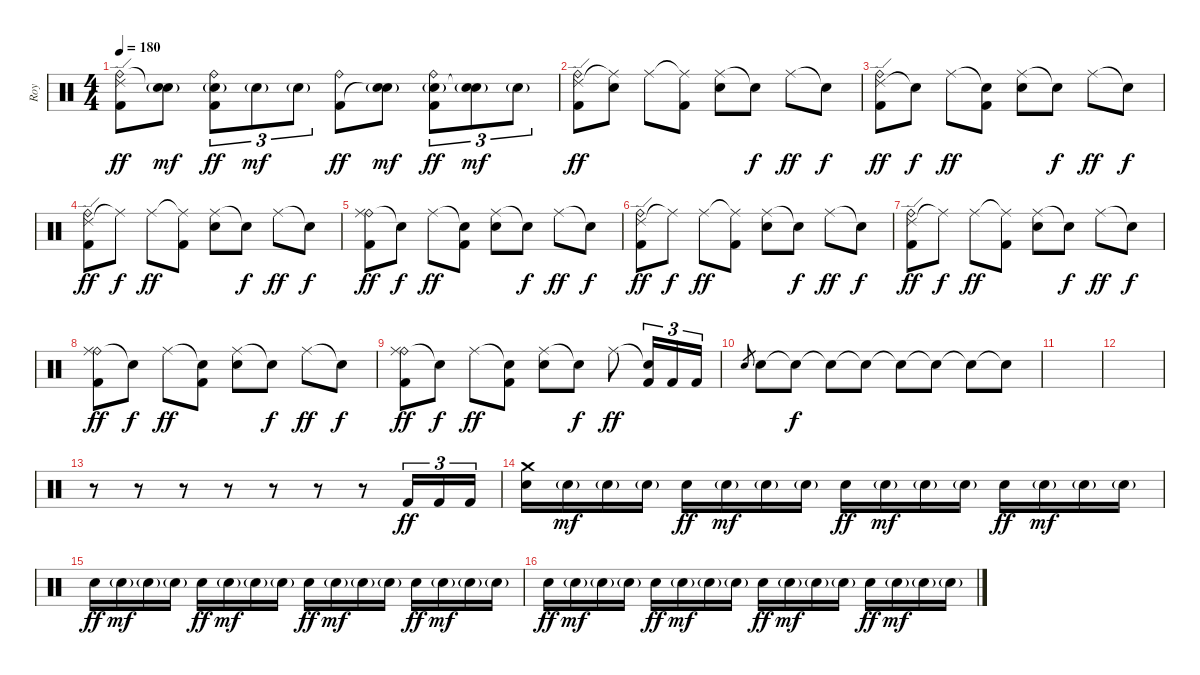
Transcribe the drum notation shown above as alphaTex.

\track ("Roy" "Roy") {instrument percussion}
\staff {score}
\articulation defaults
\ts (4 4)
\tempo 180
\clef neutral
\ks c
("Ride (bell)" "Ride (edge) 2" "Kick (hit) 2").8{dy ff} ("Snare (hit)"{t} "Electric Snare (hit)"{g}).8{dy mf} ("Ride (bell)" "Electric Snare (hit)"{g} "Kick (hit) 2").8{tu (3 2) dy ff} "Electric Snare (hit)"{g}.8{tu (3 2) dy mf} "Electric Snare (hit)"{g}.8{tu (3 2)} ("Ride (bell)" "Kick (hit) 2").8{dy ff} ("Electric Snare (hit)"{g} "Snare (hit)"{t}).8{dy mf} ("Ride (bell)" "Electric Snare (hit)"{g} "Kick (hit) 2").8{tu (3 2) dy ff} ("Electric Snare (hit)"{g} "Snare (hit)"{t}).8{tu (3 2) dy mf} "Electric Snare (hit)"{g}.8{tu (3 2)} |
("Ride (edge) 2" "Ride (bell)" "Kick (hit) 2").8{dy ff} ("Ride (middle)"{t} "Electric Snare (hit)").8 "Ride (middle)".8 ("Ride (middle)"{t} "Kick (hit) 2").8 ("Ride (middle)" "Electric Snare (hit)").8 "Snare (hit)"{t}.8{dy f} "Ride (middle)".8{dy ff} "Snare (hit)"{t}.8{dy f} |
("Ride (edge) 2" "Ride (bell)" "Kick (hit) 2").8{dy ff} "Snare (hit)"{t}.8{dy f} "Ride (middle)".8{dy ff} ("Snare (hit)"{t} "Kick (hit) 2").8 ("Ride (middle)" "Electric Snare (hit)").8 "Snare (hit)"{t}.8{dy f} "Ride (middle)".8{dy ff} "Snare (hit)"{t}.8{dy f} |
("Ride (edge) 2" "Ride (bell)" "Kick (hit) 2").8{dy ff} "Ride (middle)"{t}.8{dy f} "Ride (middle)".8{dy ff} ("Ride (middle)"{t} "Kick (hit) 2").8 ("Ride (middle)" "Electric Snare (hit)").8 "Snare (hit)"{t}.8{dy f} "Ride (middle)".8{dy ff} "Snare (hit)"{t}.8{dy f} |
("Ride (bell)" "Ride (middle)" "Kick (hit) 2").8{dy ff} "Snare (hit)"{t}.8{dy f} "Ride (middle)".8{dy ff} ("Snare (hit)"{t} "Kick (hit) 2").8 ("Ride (middle)" "Electric Snare (hit)").8 "Snare (hit)"{t}.8{dy f} "Ride (middle)".8{dy ff} "Snare (hit)"{t}.8{dy f} |
("Ride (edge) 2" "Ride (bell)" "Kick (hit) 2").8{dy ff} "Ride (middle)"{t}.8{dy f} "Ride (middle)".8{dy ff} ("Ride (middle)"{t} "Kick (hit) 2").8 ("Ride (middle)" "Electric Snare (hit)").8 "Snare (hit)"{t}.8{dy f} "Ride (middle)".8{dy ff} "Snare (hit)"{t}.8{dy f} |
("Ride (edge) 2" "Ride (bell)" "Kick (hit) 2").8{dy ff} "Ride (middle)"{t}.8{dy f} "Ride (middle)".8{dy ff} ("Ride (middle)"{t} "Kick (hit) 2").8 ("Ride (middle)" "Electric Snare (hit)").8 "Snare (hit)"{t}.8{dy f} "Ride (middle)".8{dy ff} "Snare (hit)"{t}.8{dy f} |
("Ride (bell)" "Ride (middle)" "Kick (hit) 2").8{dy ff} "Snare (hit)"{t}.8{dy f} "Ride (middle)".8{dy ff} ("Snare (hit)"{t} "Kick (hit) 2").8 ("Ride (middle)" "Electric Snare (hit)").8 "Snare (hit)"{t}.8{dy f} "Ride (middle)".8{dy ff} "Snare (hit)"{t}.8{dy f} |
("Ride (bell)" "Ride (middle)" "Kick (hit) 2").8{dy ff} "Snare (hit)"{t}.8{dy f} "Ride (middle)".8{dy ff} ("Snare (hit)"{t} "Kick (hit) 2").8 ("Ride (middle)" "Electric Snare (hit)").8 "Snare (hit)"{t}.8{dy f} "Ride (middle)".8{dy ff} ("Snare (hit)"{t} "Kick (hit) 2").16{tu (3 2)} "Kick (hit) 2".16{tu (3 2)} "Kick (hit) 2".16{tu (3 2)} |
"Electric Snare (hit)".8{gr} "Electric Snare (hit)".8 "Snare (hit)"{t}.8{dy f} "Snare (hit)"{t}.8 "Snare (hit)"{t}.8 "Snare (hit)"{t}.8 "Snare (hit)"{t}.8 "Snare (hit)"{t}.8 "Snare (hit)"{t}.8 |
|
|
r.8 r.8 r.8 r.8 r.8 r.8 r.8 "Kick (hit) 2".16{tu (3 2) dy ff} "Kick (hit) 2".16{tu (3 2)} "Kick (hit) 2".16{tu (3 2)} |
("Crash medium (hit)" "Electric Snare (hit)").16 "Electric Snare (hit)"{g}.16{dy mf} "Electric Snare (hit)"{g}.16 "Electric Snare (hit)"{g}.16 "Electric Snare (hit)".16{dy ff} "Electric Snare (hit)"{g}.16{dy mf} "Electric Snare (hit)"{g}.16 "Electric Snare (hit)"{g}.16 "Electric Snare (hit)".16{dy ff} "Electric Snare (hit)"{g}.16{dy mf} "Electric Snare (hit)"{g}.16 "Electric Snare (hit)"{g}.16 "Electric Snare (hit)".16{dy ff} "Electric Snare (hit)"{g}.16{dy mf} "Electric Snare (hit)"{g}.16 "Electric Snare (hit)"{g}.16 |
"Electric Snare (hit)".16{dy ff} "Electric Snare (hit)"{g}.16{dy mf} "Electric Snare (hit)"{g}.16 "Electric Snare (hit)"{g}.16 "Electric Snare (hit)".16{dy ff} "Electric Snare (hit)"{g}.16{dy mf} "Electric Snare (hit)"{g}.16 "Electric Snare (hit)"{g}.16 "Electric Snare (hit)".16{dy ff} "Electric Snare (hit)"{g}.16{dy mf} "Electric Snare (hit)"{g}.16 "Electric Snare (hit)"{g}.16 "Electric Snare (hit)".16{dy ff} "Electric Snare (hit)"{g}.16{dy mf} "Electric Snare (hit)"{g}.16 "Electric Snare (hit)"{g}.16 |
"Electric Snare (hit)".16{dy ff} "Electric Snare (hit)"{g}.16{dy mf} "Electric Snare (hit)"{g}.16 "Electric Snare (hit)"{g}.16 "Electric Snare (hit)".16{dy ff} "Electric Snare (hit)"{g}.16{dy mf} "Electric Snare (hit)"{g}.16 "Electric Snare (hit)"{g}.16 "Electric Snare (hit)".16{dy ff} "Electric Snare (hit)"{g}.16{dy mf} "Electric Snare (hit)"{g}.16 "Electric Snare (hit)"{g}.16 "Electric Snare (hit)".16{dy ff} "Electric Snare (hit)"{g}.16{dy mf} "Electric Snare (hit)"{g}.16 "Electric Snare (hit)"{g}.16
